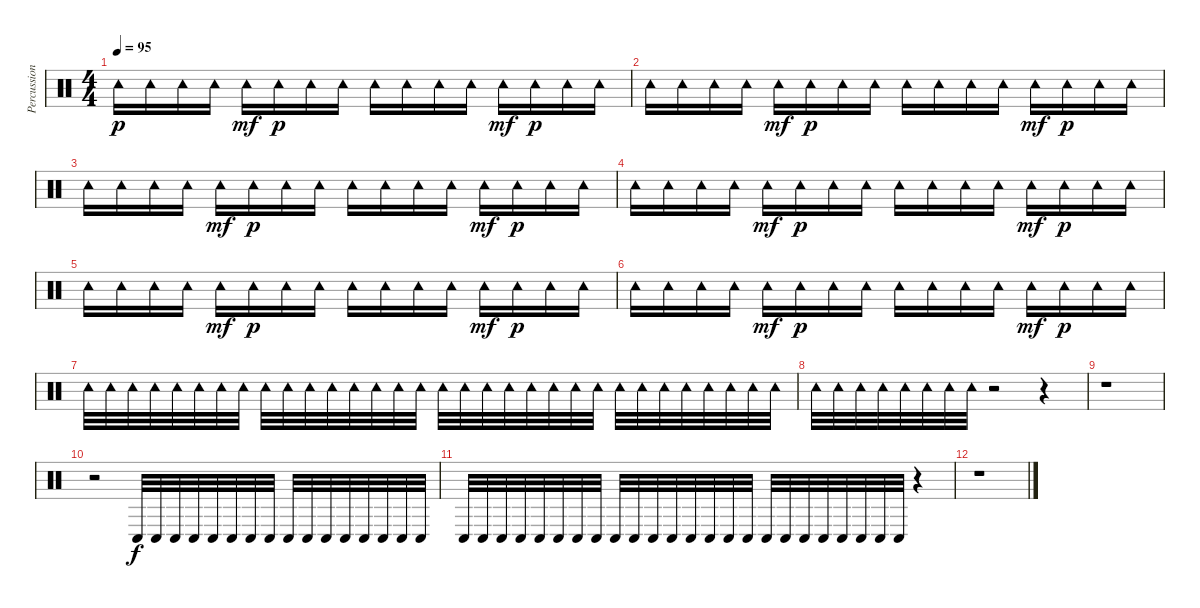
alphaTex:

\track ("Percussion" "Percussion") {instrument percussion}
\staff {score}
\articulation defaults
\ts (4 4)
\tempo 95
\clef neutral
\ks c "Tambourine (hit)".16{dy p} "Tambourine (hit)".16 "Tambourine (hit)".16 "Tambourine (hit)".16 "Tambourine (hit)".16{dy mf} "Tambourine (hit)".16{dy p} "Tambourine (hit)".16 "Tambourine (hit)".16 "Tambourine (hit)".16 "Tambourine (hit)".16 "Tambourine (hit)".16 "Tambourine (hit)".16 "Tambourine (hit)".16{dy mf} "Tambourine (hit)".16{dy p} "Tambourine (hit)".16 "Tambourine (hit)".16
|
"Tambourine (hit)".16 "Tambourine (hit)".16 "Tambourine (hit)".16 "Tambourine (hit)".16 "Tambourine (hit)".16{dy mf} "Tambourine (hit)".16{dy p} "Tambourine (hit)".16 "Tambourine (hit)".16 "Tambourine (hit)".16 "Tambourine (hit)".16 "Tambourine (hit)".16 "Tambourine (hit)".16 "Tambourine (hit)".16{dy mf} "Tambourine (hit)".16{dy p} "Tambourine (hit)".16 "Tambourine (hit)".16 |
"Tambourine (hit)".16 "Tambourine (hit)".16 "Tambourine (hit)".16 "Tambourine (hit)".16 "Tambourine (hit)".16{dy mf} "Tambourine (hit)".16{dy p} "Tambourine (hit)".16 "Tambourine (hit)".16 "Tambourine (hit)".16 "Tambourine (hit)".16 "Tambourine (hit)".16 "Tambourine (hit)".16 "Tambourine (hit)".16{dy mf} "Tambourine (hit)".16{dy p} "Tambourine (hit)".16 "Tambourine (hit)".16 |
"Tambourine (hit)".16 "Tambourine (hit)".16 "Tambourine (hit)".16 "Tambourine (hit)".16 "Tambourine (hit)".16{dy mf} "Tambourine (hit)".16{dy p} "Tambourine (hit)".16 "Tambourine (hit)".16 "Tambourine (hit)".16 "Tambourine (hit)".16 "Tambourine (hit)".16 "Tambourine (hit)".16 "Tambourine (hit)".16{dy mf} "Tambourine (hit)".16{dy p} "Tambourine (hit)".16 "Tambourine (hit)".16 |
"Tambourine (hit)".16 "Tambourine (hit)".16 "Tambourine (hit)".16 "Tambourine (hit)".16 "Tambourine (hit)".16{dy mf} "Tambourine (hit)".16{dy p} "Tambourine (hit)".16 "Tambourine (hit)".16 "Tambourine (hit)".16 "Tambourine (hit)".16 "Tambourine (hit)".16 "Tambourine (hit)".16 "Tambourine (hit)".16{dy mf} "Tambourine (hit)".16{dy p} "Tambourine (hit)".16 "Tambourine (hit)".16 |
"Tambourine (hit)".16 "Tambourine (hit)".16 "Tambourine (hit)".16 "Tambourine (hit)".16 "Tambourine (hit)".16{dy mf} "Tambourine (hit)".16{dy p} "Tambourine (hit)".16 "Tambourine (hit)".16 "Tambourine (hit)".16 "Tambourine (hit)".16 "Tambourine (hit)".16 "Tambourine (hit)".16 "Tambourine (hit)".16{dy mf} "Tambourine (hit)".16{dy p} "Tambourine (hit)".16 "Tambourine (hit)".16 |
"Tambourine (hit)".32 "Tambourine (hit)".32 "Tambourine (hit)".32 "Tambourine (hit)".32 "Tambourine (hit)".32 "Tambourine (hit)".32 "Tambourine (hit)".32 "Tambourine (hit)".32 "Tambourine (hit)".32 "Tambourine (hit)".32 "Tambourine (hit)".32 "Tambourine (hit)".32 "Tambourine (hit)".32 "Tambourine (hit)".32 "Tambourine (hit)".32 "Tambourine (hit)".32 "Tambourine (hit)".32 "Tambourine (hit)".32 "Tambourine (hit)".32 "Tambourine (hit)".32 "Tambourine (hit)".32 "Tambourine (hit)".32 "Tambourine (hit)".32 "Tambourine (hit)".32 "Tambourine (hit)".32 "Tambourine (hit)".32 "Tambourine (hit)".32 "Tambourine (hit)".32 "Tambourine (hit)".32 "Tambourine (hit)".32 "Tambourine (hit)".32 "Tambourine (hit)".32 |
"Tambourine (hit)".32 "Tambourine (hit)".32 "Tambourine (hit)".32 "Tambourine (hit)".32 "Tambourine (hit)".32 "Tambourine (hit)".32 "Tambourine (hit)".32 "Tambourine (hit)".32 r.2 r.4 |
r.1 |
r.2 "Conga low (hit)".32{dy f volume 6} "Conga low (hit)".32 "Conga low (hit)".32 "Conga low (hit)".32 "Conga low (hit)".32 "Conga low (hit)".32 "Conga low (hit)".32 "Conga low (hit)".32 "Conga low (hit)".32 "Conga low (hit)".32 "Conga low (hit)".32 "Conga low (hit)".32 "Conga low (hit)".32 "Conga low (hit)".32 "Conga low (hit)".32 "Conga low (hit)".32 |
"Conga low (hit)".32 "Conga low (hit)".32 "Conga low (hit)".32 "Conga low (hit)".32 "Conga low (hit)".32 "Conga low (hit)".32 "Conga low (hit)".32 "Conga low (hit)".32 "Conga low (hit)".32 "Conga low (hit)".32 "Conga low (hit)".32 "Conga low (hit)".32 "Conga low (hit)".32 "Conga low (hit)".32 "Conga low (hit)".32 "Conga low (hit)".32 "Conga low (hit)".32 "Conga low (hit)".32 "Conga low (hit)".32 "Conga low (hit)".32 "Conga low (hit)".32 "Conga low (hit)".32 "Conga low (hit)".32 "Conga low (hit)".32 r.4 |
r.1
